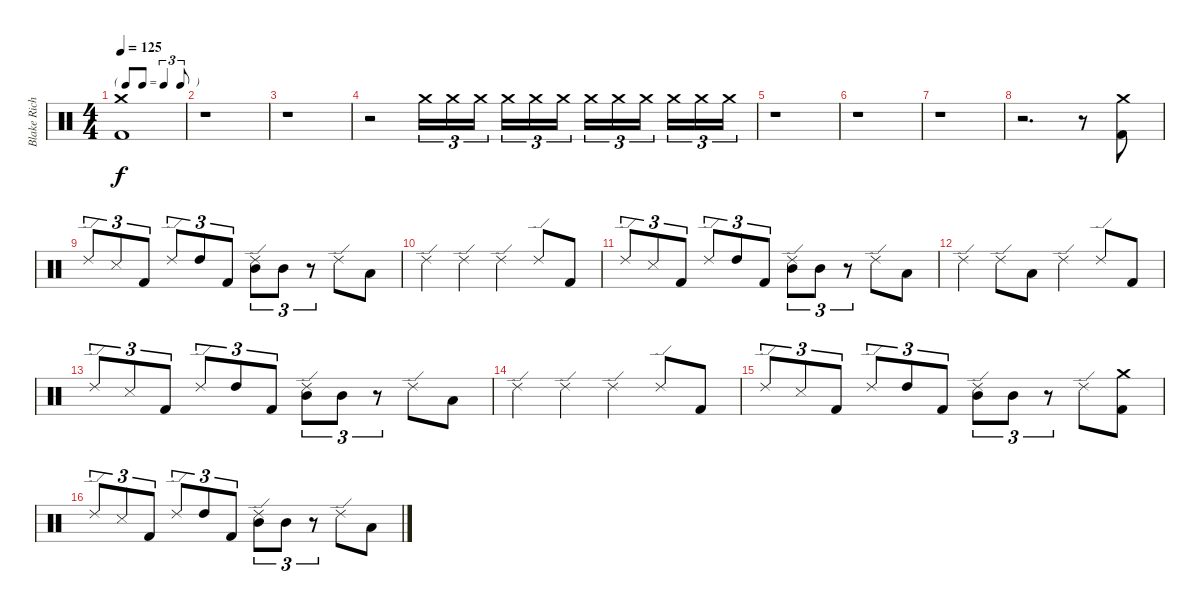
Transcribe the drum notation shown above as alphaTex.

\track ("Blake Richardson - Drums" "Blake Rich") {instrument percussion}
\staff {score}
\articulation defaults
\ts (4 4)
\tf triplet8th
\tempo 125
\clef neutral
\ks c
("Crash medium (hit)" "Kick (hit) 2").1{dy f} |
r.1 |
r.1 |
r.2{volume 0} "Crash medium (hit)".16{tu (3 2) volume 16} "Crash medium (hit)".16{tu (3 2)} "Crash medium (hit)".16{tu (3 2) beam splitsecondary} "Crash medium (hit)".16{tu (3 2)} "Crash medium (hit)".16{tu (3 2)} "Crash medium (hit)".16{tu (3 2)} "Crash medium (hit)".16{tu (3 2)} "Crash medium (hit)".16{tu (3 2)} "Crash medium (hit)".16{tu (3 2) beam splitsecondary} "Crash medium (hit)".16{tu (3 2)} "Crash medium (hit)".16{tu (3 2)} "Crash medium (hit)".16{tu (3 2)} |
r.1{volume 0} |
r.1 |
r.1 |
r.2{d} r.8{volume 16} ("Crash medium (hit)" "Kick (hit) 2").8 |
"Ride (edge) 2".8{tu (3 2)} "Snare (side stick) 3".8{tu (3 2)} "Kick (hit) 2".8{tu (3 2)} "Ride (edge) 2".8{tu (3 2)} "High Tom (hit)".8{tu (3 2)} "Kick (hit) 2".8{tu (3 2)} ("Ride (edge) 2" "Mid Tom (hit)").8{tu (3 2)} "Mid Tom (hit)".8{tu (3 2)} r.8{tu (3 2)} "Ride (edge) 2".8 "Low Tom (hit)".8 |
"Ride (edge) 2".4 "Ride (edge) 2".4 "Ride (edge) 2".4 "Ride (edge) 2".8 "Kick (hit) 2".8 |
"Ride (edge) 2".8{tu (3 2)} "Snare (side stick) 3".8{tu (3 2)} "Kick (hit) 2".8{tu (3 2)} "Ride (edge) 2".8{tu (3 2)} "High Tom (hit)".8{tu (3 2)} "Kick (hit) 2".8{tu (3 2)} ("Ride (edge) 2" "Mid Tom (hit)").8{tu (3 2)} "Mid Tom (hit)".8{tu (3 2)} r.8{tu (3 2)} "Ride (edge) 2".8 "Low Tom (hit)".8 |
"Ride (edge) 2".4 "Ride (edge) 2".8 "Low Floor Tom (hit)".8 "Ride (edge) 2".4 "Ride (edge) 2".8 "Kick (hit) 2".8 |
"Ride (edge) 2".8{tu (3 2)} "Snare (side stick) 3".8{tu (3 2)} "Kick (hit) 2".8{tu (3 2)} "Ride (edge) 2".8{tu (3 2)} "High Tom (hit)".8{tu (3 2)} "Kick (hit) 2".8{tu (3 2)} ("Ride (edge) 2" "Mid Tom (hit)").8{tu (3 2)} "Mid Tom (hit)".8{tu (3 2)} r.8{tu (3 2)} "Ride (edge) 2".8 "Low Tom (hit)".8 |
"Ride (edge) 2".4 "Ride (edge) 2".4 "Ride (edge) 2".4 "Ride (edge) 2".8 "Kick (hit) 2".8 |
"Ride (edge) 2".8{tu (3 2)} "Snare (side stick) 3".8{tu (3 2)} "Kick (hit) 2".8{tu (3 2)} "Ride (edge) 2".8{tu (3 2)} "High Tom (hit)".8{tu (3 2)} "Kick (hit) 2".8{tu (3 2)} ("Ride (edge) 2" "Mid Tom (hit)").8{tu (3 2)} "Mid Tom (hit)".8{tu (3 2)} r.8{tu (3 2)} "Ride (edge) 2".8 ("Crash medium (hit)" "Kick (hit) 2").8 |
"Ride (edge) 2".8{tu (3 2)} "Snare (side stick) 3".8{tu (3 2)} "Kick (hit) 2".8{tu (3 2)} "Ride (edge) 2".8{tu (3 2)} "High Tom (hit)".8{tu (3 2)} "Kick (hit) 2".8{tu (3 2)} ("Ride (edge) 2" "Mid Tom (hit)").8{tu (3 2)} "Mid Tom (hit)".8{tu (3 2)} r.8{tu (3 2)} "Ride (edge) 2".8 "Low Tom (hit)".8
